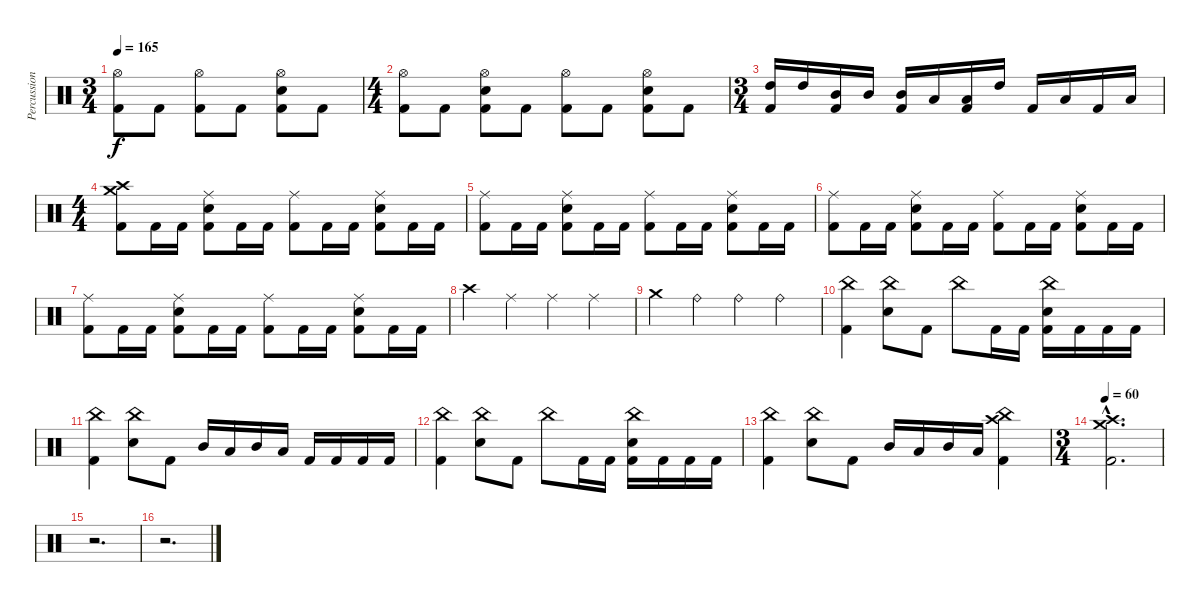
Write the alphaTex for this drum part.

\track ("Percussion" "Percussion") {instrument percussion}
\staff {score}
\articulation defaults
\ts (3 4)
\tempo 165
\clef neutral
\ks c
("Hi-Hat (open)" "Kick (hit) 2").8{dy f} "Kick (hit) 2".8 ("Hi-Hat (open)" "Kick (hit) 2").8 "Kick (hit) 2".8 ("Hi-Hat (open)" "Snare (hit) 2" "Kick (hit) 2").8 "Kick (hit) 2".8 |
\ts (4 4)
("Hi-Hat (open)" "Kick (hit) 2").8 "Kick (hit) 2".8 ("Hi-Hat (open)" "Snare (hit) 2" "Kick (hit) 2").8 "Kick (hit) 2".8 ("Hi-Hat (open)" "Kick (hit) 2").8 "Kick (hit) 2".8 ("Hi-Hat (open)" "Snare (hit) 2" "Kick (hit) 2").8 "Kick (hit) 2".8 |
\ts (3 4)
("High Tom (hit)" "Kick (hit) 2").16 "High Tom (hit)".16 ("Mid Tom (hit)" "Kick (hit) 2").16 "Mid Tom (hit)".16 ("Mid Tom (hit)" "Kick (hit) 2").16 "Low Tom (hit)".16 ("Low Tom (hit)" "Kick (hit) 2").16 "High Tom (hit)".16 "Kick (hit) 2".16 "Low Tom (hit)".16 "Kick (hit) 2".16 "Low Tom (hit)".16 |
\ts (4 4)
("Crash high (hit)" "Crash medium (hit)" "Kick (hit) 2").8 "Kick (hit) 2".16 "Kick (hit) 2".16 ("Ride (middle)" "Snare (hit) 2" "Kick (hit) 2").8 "Kick (hit) 2".16 "Kick (hit) 2".16 ("Ride (middle)" "Kick (hit) 2").8 "Kick (hit) 2".16 "Kick (hit) 2".16 ("Ride (middle)" "Snare (hit) 2" "Kick (hit) 2").8 "Kick (hit) 2".16 "Kick (hit) 2".16 |
("Ride (middle)" "Kick (hit) 2").8 "Kick (hit) 2".16 "Kick (hit) 2".16 ("Ride (middle)" "Snare (hit) 2" "Kick (hit) 2").8 "Kick (hit) 2".16 "Kick (hit) 2".16 ("Ride (middle)" "Kick (hit) 2").8 "Kick (hit) 2".16 "Kick (hit) 2".16 ("Ride (middle)" "Snare (hit) 2" "Kick (hit) 2").8 "Kick (hit) 2".16 "Kick (hit) 2".16 |
("Ride (middle)" "Kick (hit) 2").8 "Kick (hit) 2".16 "Kick (hit) 2".16 ("Ride (middle)" "Snare (hit) 2" "Kick (hit) 2").8 "Kick (hit) 2".16 "Kick (hit) 2".16 ("Ride (middle)" "Kick (hit) 2").8 "Kick (hit) 2".16 "Kick (hit) 2".16 ("Ride (middle)" "Snare (hit) 2" "Kick (hit) 2").8 "Kick (hit) 2".16 "Kick (hit) 2".16 |
("Ride (middle)" "Kick (hit) 2").8 "Kick (hit) 2".16 "Kick (hit) 2".16 ("Ride (middle)" "Snare (hit) 2" "Kick (hit) 2").8 "Kick (hit) 2".16 "Kick (hit) 2".16 ("Ride (middle)" "Kick (hit) 2").8 "Kick (hit) 2".16 "Kick (hit) 2".16 ("Ride (middle)" "Snare (hit) 2" "Kick (hit) 2").8 "Kick (hit) 2".16 "Kick (hit) 2".16 |
"Crash high (hit)".4 "Ride (middle)".4 "Ride (middle)".4 "Ride (middle)".4 |
"Crash medium (hit)".4 "Ride (bell)".4 "Ride (bell)".4 "Ride (bell)".4 |
("China (hit)" "Kick (hit) 2").4 ("China (hit)" "Snare (hit) 2").8 "Kick (hit) 2".8 "China (hit)".8 "Kick (hit) 2".16 "Kick (hit) 2".16 ("China (hit)" "Snare (hit) 2" "Kick (hit) 2").16 "Kick (hit) 2".16 "Kick (hit) 2".16 "Kick (hit) 2".16 |
("China (hit)" "Kick (hit) 2").4 ("China (hit)" "Snare (hit) 2").8 "Kick (hit) 2".8 "Mid Tom (hit)".16 "Low Tom (hit)".16 "Mid Tom (hit)".16 "Low Tom (hit)".16 "Kick (hit) 2".16 "Kick (hit) 2".16 "Kick (hit) 2".16 "Kick (hit) 2".16 |
("China (hit)" "Kick (hit) 2").4 ("China (hit)" "Snare (hit) 2").8 "Kick (hit) 2".8 "China (hit)".8 "Kick (hit) 2".16 "Kick (hit) 2".16 ("China (hit)" "Snare (hit) 2" "Kick (hit) 2").16 "Kick (hit) 2".16 "Kick (hit) 2".16 "Kick (hit) 2".16 |
("China (hit)" "Kick (hit) 2").4 ("China (hit)" "Snare (hit) 2").8 "Kick (hit) 2".8 "Mid Tom (hit)".16 "Low Tom (hit)".16 "Mid Tom (hit)".16 "Low Tom (hit)".16 ("China (hit)" "Crash high (hit)" "Kick (hit) 2").4 |
\ts (3 4)
\tempo 60
("Crash medium (hit)"{hac} "Crash high (hit)"{hac} "Kick (hit) 2"{hac}).2{d} |
r.2{d} |
r.2{d}
